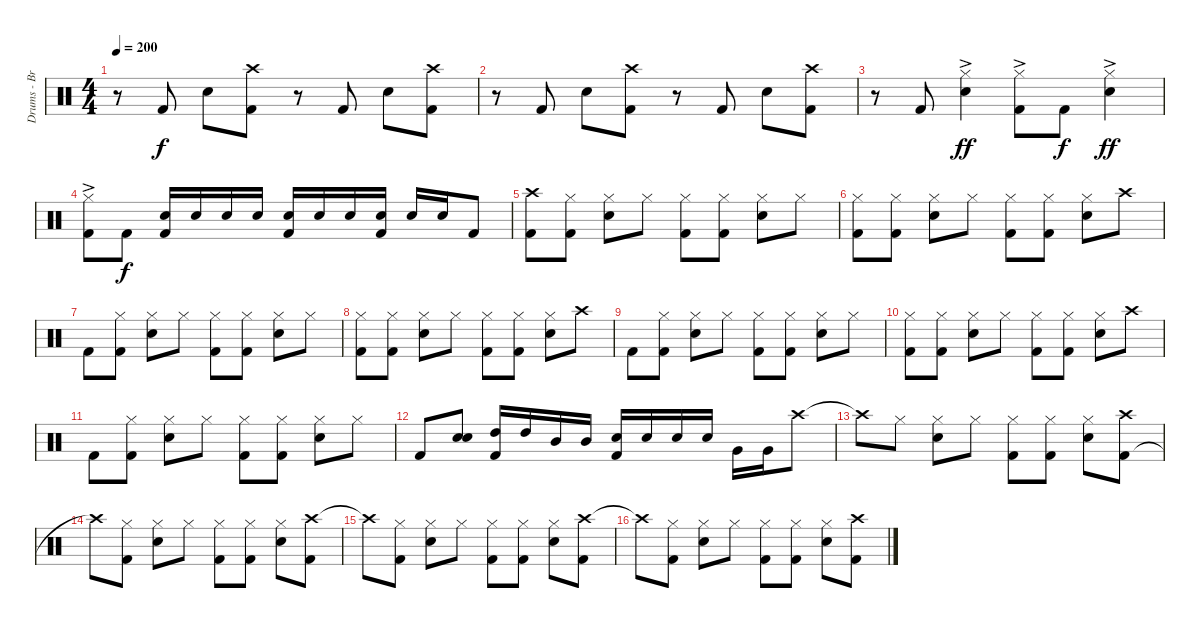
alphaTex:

\track ("Drums - Brandon Barnes" "Drums - Br") {instrument percussion}
\staff {score}
\articulation defaults
\ts (4 4)
\tempo 200
\clef neutral
\ks c
r.8{dy f} "Kick (hit) 2".8 "Snare (hit) 2".8 ("Kick (hit) 2" "Crash high (hit)").8 r.8 "Kick (hit) 2".8 "Snare (hit) 2".8 ("Kick (hit) 2" "Crash high (hit)").8 |
r.8 "Kick (hit) 2".8 "Snare (hit) 2".8 ("Kick (hit) 2" "Crash high (hit)").8 r.8 "Kick (hit) 2".8 "Snare (hit) 2".8 ("Kick (hit) 2" "Crash high (hit)").8 |
r.8 "Kick (hit) 2".8 ("Snare (hit) 2" "Hi-Hat (closed)"{ac}).4{dy ff} ("Hi-Hat (closed)"{ac} "Kick (hit) 2").8 "Kick (hit) 2".8{dy f} ("Snare (hit) 2" "Hi-Hat (closed)"{ac}).4{dy ff} |
("Kick (hit) 2" "Hi-Hat (closed)"{ac}).8 "Kick (hit) 2".8{dy f} ("Snare (hit) 2" "Kick (hit) 2").16 "Snare (hit) 2".16 "Snare (hit) 2".16 "Snare (hit) 2".16 ("Snare (hit) 2" "Kick (hit) 2").16 "Snare (hit) 2".16 "Snare (hit) 2".16 ("Kick (hit) 2" "Snare (hit) 2").16 "Snare (hit) 2".16 "Snare (hit) 2".16 "Kick (hit) 2".8 |
("Kick (hit) 2" "Crash high (hit)").8 ("Hi-Hat (closed)" "Kick (hit) 2").8 ("Snare (hit) 2" "Hi-Hat (closed)").8 "Hi-Hat (closed)".8 ("Hi-Hat (closed)" "Kick (hit) 2").8 ("Kick (hit) 2" "Hi-Hat (closed)").8 ("Hi-Hat (closed)" "Snare (hit) 2").8 "Hi-Hat (closed)".8 |
("Hi-Hat (closed)" "Kick (hit) 2").8 ("Kick (hit) 2" "Hi-Hat (closed)").8 ("Hi-Hat (closed)" "Snare (hit) 2").8 "Hi-Hat (closed)".8 ("Hi-Hat (closed)" "Kick (hit) 2").8 ("Kick (hit) 2" "Hi-Hat (closed)").8 ("Hi-Hat (closed)" "Snare (hit) 2").8 "Crash high (hit)".8 |
"Kick (hit) 2".8 ("Kick (hit) 2" "Hi-Hat (closed)").8 ("Hi-Hat (closed)" "Snare (hit) 2").8 "Hi-Hat (closed)".8 ("Hi-Hat (closed)" "Kick (hit) 2").8 ("Kick (hit) 2" "Hi-Hat (closed)").8 ("Hi-Hat (closed)" "Snare (hit) 2").8 "Hi-Hat (closed)".8 |
("Hi-Hat (closed)" "Kick (hit) 2").8 ("Kick (hit) 2" "Hi-Hat (closed)").8 ("Hi-Hat (closed)" "Snare (hit) 2").8 "Hi-Hat (closed)".8 ("Hi-Hat (closed)" "Kick (hit) 2").8 ("Kick (hit) 2" "Hi-Hat (closed)").8 ("Hi-Hat (closed)" "Snare (hit) 2").8 "Crash high (hit)".8 |
"Kick (hit) 2".8 ("Kick (hit) 2" "Hi-Hat (closed)").8 ("Hi-Hat (closed)" "Snare (hit) 2").8 "Hi-Hat (closed)".8 ("Hi-Hat (closed)" "Kick (hit) 2").8 ("Kick (hit) 2" "Hi-Hat (closed)").8 ("Hi-Hat (closed)" "Snare (hit) 2").8 "Hi-Hat (closed)".8 |
("Hi-Hat (closed)" "Kick (hit) 2").8 ("Kick (hit) 2" "Hi-Hat (closed)").8 ("Hi-Hat (closed)" "Snare (hit) 2").8 "Hi-Hat (closed)".8 ("Hi-Hat (closed)" "Kick (hit) 2").8 ("Kick (hit) 2" "Hi-Hat (closed)").8 ("Hi-Hat (closed)" "Snare (hit) 2").8 "Crash high (hit)".8 |
"Kick (hit) 2".8 ("Kick (hit) 2" "Hi-Hat (closed)").8 ("Hi-Hat (closed)" "Snare (hit) 2").8 "Hi-Hat (closed)".8 ("Hi-Hat (closed)" "Kick (hit) 2").8 ("Kick (hit) 2" "Hi-Hat (closed)").8 ("Hi-Hat (closed)" "Snare (hit) 2").8 "Hi-Hat (closed)".8 |
"Kick (hit) 2".8 ("Snare (hit) 2" "Electric Snare (hit)").8 ("Kick (hit) 2" "High Tom (hit)").16 "High Tom (hit)".16 "Mid Tom (hit)".16 "Mid Tom (hit)".16 ("Kick (hit) 2" "Snare (hit) 2").16 "Snare (hit) 2".16 "Snare (hit) 2".16 "Snare (hit) 2".16 "Very Low Tom (hit)".16 "Very Low Tom (hit)".16 "Crash high (hit)".8 |
"Crash high (hit)"{t}.8 "Hi-Hat (closed)".8 ("Hi-Hat (closed)" "Snare (hit) 2").8 "Hi-Hat (closed)".8 ("Hi-Hat (closed)" "Kick (hit) 2").8 ("Kick (hit) 2" "Hi-Hat (closed)").8 ("Hi-Hat (closed)" "Snare (hit) 2").8 ("Kick (hit) 2" "Crash high (hit)").8 |
"Crash high (hit)"{t}.8 ("Kick (hit) 2" "Hi-Hat (closed)").8 ("Hi-Hat (closed)" "Snare (hit) 2").8 "Hi-Hat (closed)".8 ("Hi-Hat (closed)" "Kick (hit) 2").8 ("Kick (hit) 2" "Hi-Hat (closed)").8 ("Hi-Hat (closed)" "Snare (hit) 2").8 ("Crash high (hit)" "Kick (hit) 2").8 |
"Crash high (hit)"{t}.8 ("Kick (hit) 2" "Hi-Hat (closed)").8 ("Hi-Hat (closed)" "Snare (hit) 2").8 "Hi-Hat (closed)".8 ("Hi-Hat (closed)" "Kick (hit) 2").8 ("Kick (hit) 2" "Hi-Hat (closed)").8 ("Hi-Hat (closed)" "Snare (hit) 2").8 ("Crash high (hit)" "Kick (hit) 2").8 |
"Crash high (hit)"{t}.8 ("Kick (hit) 2" "Hi-Hat (closed)").8 ("Hi-Hat (closed)" "Snare (hit) 2").8 "Hi-Hat (closed)".8 ("Hi-Hat (closed)" "Kick (hit) 2").8 ("Kick (hit) 2" "Hi-Hat (closed)").8 ("Hi-Hat (closed)" "Snare (hit) 2").8 ("Crash high (hit)" "Kick (hit) 2").8
